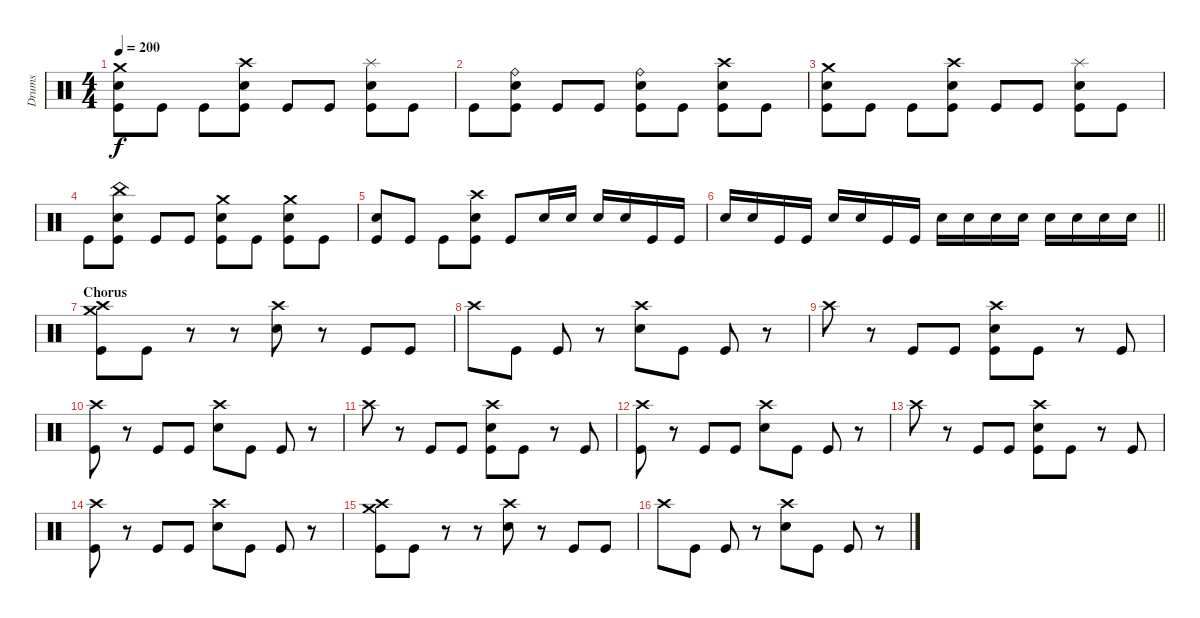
\track ("Drums" "Drums") {instrument percussion}
\staff {score}
\articulation defaults
\ts (4 4)
\tempo 200
\clef neutral
\ks c
("Crash medium (hit)" "Electric Snare (hit)" "Kick (hit)").8{dy f} "Kick (hit)".8 "Kick (hit)".8 ("Crash high (hit)" "Electric Snare (hit)" "Kick (hit)").8 "Kick (hit)".8 "Kick (hit)".8 ("Splash (hit)" "Electric Snare (hit)" "Kick (hit)").8 "Kick (hit)".8 |
"Kick (hit)".8 ("Ride (bell)" "Electric Snare (hit)" "Kick (hit)").8 "Kick (hit)".8 "Kick (hit)".8 ("Ride (bell)" "Electric Snare (hit)" "Kick (hit)").8 "Kick (hit)".8 ("Crash high (hit)" "Electric Snare (hit)" "Kick (hit)").8 "Kick (hit)".8 |
("Crash medium (hit)" "Electric Snare (hit)" "Kick (hit)").8 "Kick (hit)".8 "Kick (hit)".8 ("Crash high (hit)" "Electric Snare (hit)" "Kick (hit)").8 "Kick (hit)".8 "Kick (hit)".8 ("Splash (hit)" "Electric Snare (hit)" "Kick (hit)").8 "Kick (hit)".8 |
"Kick (hit)".8 ("China (hit)" "Electric Snare (hit)" "Kick (hit)").8 "Kick (hit)".8 "Kick (hit)".8 ("Crash medium (hit)" "Electric Snare (hit)" "Kick (hit)").8 "Kick (hit)".8 ("Crash medium (hit)" "Electric Snare (hit)" "Kick (hit)").8 "Kick (hit)".8 |
("Electric Snare (hit)" "Kick (hit)").8 "Kick (hit)".8 "Kick (hit)".8 ("Crash high (hit)" "Electric Snare (hit)" "Kick (hit)").8 "Kick (hit)".8 "Electric Snare (hit)".16 "Electric Snare (hit)".16 "Electric Snare (hit)".16 "Electric Snare (hit)".16 "Kick (hit)".16 "Kick (hit)".16 |
\barLineRight lightlight "Electric Snare (hit)".16 "Electric Snare (hit)".16 "Kick (hit)".16 "Kick (hit)".16 "Electric Snare (hit)".16 "Electric Snare (hit)".16 "Kick (hit)".16 "Kick (hit)".16 "Electric Snare (hit)".16 "Electric Snare (hit)".16 "Electric Snare (hit)".16 "Electric Snare (hit)".16 "Electric Snare (hit)".16 "Electric Snare (hit)".16 "Electric Snare (hit)".16 "Electric Snare (hit)".16
|
\section ("" "Chorus")
("Crash high (hit)" "Crash medium (hit)" "Kick (hit)").8 "Kick (hit)".8 r.8 r.8 ("Crash high (hit)" "Electric Snare (hit)").8 r.8 "Kick (hit)".8 "Kick (hit)".8 |
"Crash high (hit)".8 "Kick (hit)".8 "Kick (hit)".8 r.8 ("Crash high (hit)" "Electric Snare (hit)").8 "Kick (hit)".8 "Kick (hit)".8 r.8 |
"Crash high (hit)".8 r.8 "Kick (hit)".8 "Kick (hit)".8 ("Crash high (hit)" "Electric Snare (hit)" "Kick (hit)").8 "Kick (hit)".8 r.8 "Kick (hit)".8 |
("Crash high (hit)" "Kick (hit)").8 r.8 "Kick (hit)".8 "Kick (hit)".8 ("Crash high (hit)" "Electric Snare (hit)").8 "Kick (hit)".8 "Kick (hit)".8 r.8 |
"Crash high (hit)".8 r.8 "Kick (hit)".8 "Kick (hit)".8 ("Crash high (hit)" "Electric Snare (hit)" "Kick (hit)").8 "Kick (hit)".8 r.8 "Kick (hit)".8 |
("Crash high (hit)" "Kick (hit)").8 r.8 "Kick (hit)".8 "Kick (hit)".8 ("Crash high (hit)" "Electric Snare (hit)").8 "Kick (hit)".8 "Kick (hit)".8 r.8 |
"Crash high (hit)".8 r.8 "Kick (hit)".8 "Kick (hit)".8 ("Crash high (hit)" "Electric Snare (hit)" "Kick (hit)").8 "Kick (hit)".8 r.8 "Kick (hit)".8 |
("Crash high (hit)" "Kick (hit)").8 r.8 "Kick (hit)".8 "Kick (hit)".8 ("Crash high (hit)" "Electric Snare (hit)").8 "Kick (hit)".8 "Kick (hit)".8 r.8 |
("Crash high (hit)" "Crash medium (hit)" "Kick (hit)").8 "Kick (hit)".8 r.8 r.8 ("Crash high (hit)" "Electric Snare (hit)").8 r.8 "Kick (hit)".8 "Kick (hit)".8 |
"Crash high (hit)".8 "Kick (hit)".8 "Kick (hit)".8 r.8 ("Crash high (hit)" "Electric Snare (hit)").8 "Kick (hit)".8 "Kick (hit)".8 r.8
